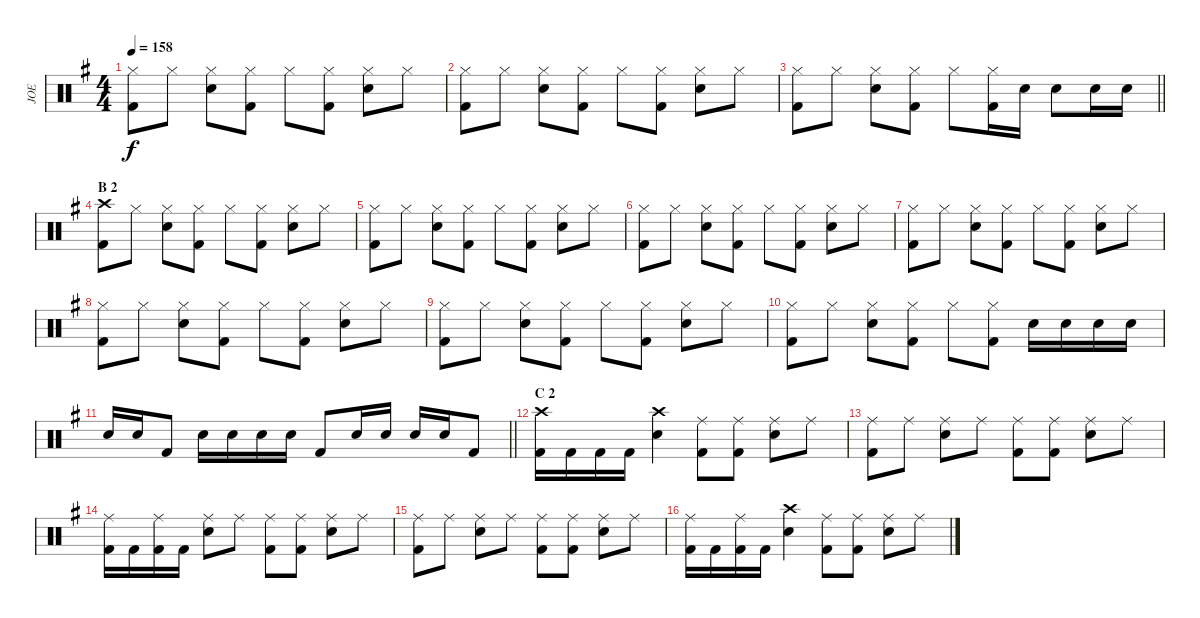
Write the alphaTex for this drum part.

\track ("JOE" "JOE") {instrument percussion}
\staff {score}
\articulation defaults
\ts (4 4)
\tempo 158
\clef neutral
\ks g
("Hi-Hat (closed)" "Kick (hit) 2").8{dy f} "Hi-Hat (closed)".8 ("Hi-Hat (closed)" "Snare (hit) 2").8 ("Hi-Hat (closed)" "Kick (hit) 2").8 "Hi-Hat (closed)".8 ("Hi-Hat (closed)" "Kick (hit) 2").8 ("Hi-Hat (closed)" "Snare (hit) 2").8 "Hi-Hat (closed)".8 |
("Hi-Hat (closed)" "Kick (hit) 2").8 "Hi-Hat (closed)".8 ("Hi-Hat (closed)" "Snare (hit) 2").8 ("Hi-Hat (closed)" "Kick (hit) 2").8 "Hi-Hat (closed)".8 ("Hi-Hat (closed)" "Kick (hit) 2").8 ("Hi-Hat (closed)" "Snare (hit) 2").8 "Hi-Hat (closed)".8 |
\barLineRight lightlight
("Hi-Hat (closed)" "Kick (hit) 2").8 "Hi-Hat (closed)".8 ("Hi-Hat (closed)" "Snare (hit) 2").8 ("Hi-Hat (closed)" "Kick (hit) 2").8 "Hi-Hat (closed)".8 ("Hi-Hat (closed)" "Kick (hit) 2").16 "Snare (hit) 2".16 "Snare (hit) 2".8 "Snare (hit) 2".16 "Snare (hit) 2".16 |
\section ("" "B 2")
("Crash high (hit)" "Kick (hit) 2").8 "Hi-Hat (closed)".8 ("Hi-Hat (closed)" "Snare (hit) 2").8 ("Hi-Hat (closed)" "Kick (hit) 2").8 "Hi-Hat (closed)".8 ("Hi-Hat (closed)" "Kick (hit) 2").8 ("Hi-Hat (closed)" "Snare (hit) 2").8 "Hi-Hat (closed)".8 |
("Hi-Hat (closed)" "Kick (hit) 2").8 "Hi-Hat (closed)".8 ("Hi-Hat (closed)" "Snare (hit) 2").8 ("Hi-Hat (closed)" "Kick (hit) 2").8 "Hi-Hat (closed)".8 ("Hi-Hat (closed)" "Kick (hit) 2").8 ("Hi-Hat (closed)" "Snare (hit) 2").8 "Hi-Hat (closed)".8 |
("Hi-Hat (closed)" "Kick (hit) 2").8 "Hi-Hat (closed)".8 ("Hi-Hat (closed)" "Snare (hit) 2").8 ("Hi-Hat (closed)" "Kick (hit) 2").8 "Hi-Hat (closed)".8 ("Hi-Hat (closed)" "Kick (hit) 2").8 ("Hi-Hat (closed)" "Snare (hit) 2").8 "Hi-Hat (closed)".8 |
("Hi-Hat (closed)" "Kick (hit) 2").8 "Hi-Hat (closed)".8 ("Hi-Hat (closed)" "Snare (hit) 2").8 ("Hi-Hat (closed)" "Kick (hit) 2").8 "Hi-Hat (closed)".8 ("Hi-Hat (closed)" "Kick (hit) 2").8 ("Hi-Hat (closed)" "Snare (hit) 2").8 "Hi-Hat (closed)".8 |
("Hi-Hat (closed)" "Kick (hit) 2").8 "Hi-Hat (closed)".8 ("Hi-Hat (closed)" "Snare (hit) 2").8 ("Hi-Hat (closed)" "Kick (hit) 2").8 "Hi-Hat (closed)".8 ("Hi-Hat (closed)" "Kick (hit) 2").8 ("Hi-Hat (closed)" "Snare (hit) 2").8 "Hi-Hat (closed)".8 |
("Hi-Hat (closed)" "Kick (hit) 2").8 "Hi-Hat (closed)".8 ("Hi-Hat (closed)" "Snare (hit) 2").8 ("Hi-Hat (closed)" "Kick (hit) 2").8 "Hi-Hat (closed)".8 ("Hi-Hat (closed)" "Kick (hit) 2").8 ("Hi-Hat (closed)" "Snare (hit) 2").8 "Hi-Hat (closed)".8 |
("Hi-Hat (closed)" "Kick (hit) 2").8 "Hi-Hat (closed)".8 ("Hi-Hat (closed)" "Snare (hit) 2").8 ("Hi-Hat (closed)" "Kick (hit) 2").8 "Hi-Hat (closed)".8 ("Hi-Hat (closed)" "Kick (hit) 2").8 "Snare (hit) 2".16 "Snare (hit) 2".16 "Snare (hit) 2".16 "Snare (hit) 2".16 |
\barLineRight lightlight "Snare (hit) 2".16 "Snare (hit) 2".16 "Kick (hit) 2".8 "Snare (hit) 2".16 "Snare (hit) 2".16 "Snare (hit) 2".16 "Snare (hit) 2".16 "Kick (hit) 2".8 "Snare (hit) 2".16 "Snare (hit) 2".16 "Snare (hit) 2".16 "Snare (hit) 2".16 "Kick (hit) 2".8
|
\section ("" "C 2")
("Crash high (hit)" "Kick (hit) 2").16 "Kick (hit) 2".16 "Kick (hit) 2".16 "Kick (hit) 2".16 ("Crash high (hit)" "Snare (hit) 2").4 ("Ride (middle)" "Kick (hit) 2").8 ("Ride (middle)" "Kick (hit) 2").8 ("Ride (middle)" "Snare (hit) 2").8 "Ride (middle)".8 |
("Ride (middle)" "Kick (hit) 2").8 "Ride (middle)".8 ("Ride (middle)" "Snare (hit) 2").8 "Ride (middle)".8 ("Ride (middle)" "Kick (hit) 2").8 ("Ride (middle)" "Kick (hit) 2").8 ("Ride (middle)" "Snare (hit) 2").8 "Ride (middle)".8 |
("Ride (middle)" "Kick (hit) 2").16 "Kick (hit) 2".16 ("Ride (middle)" "Kick (hit) 2").16 "Kick (hit) 2".16 ("Ride (middle)" "Snare (hit) 2").8 "Ride (middle)".8 ("Ride (middle)" "Kick (hit) 2").8 ("Ride (middle)" "Kick (hit) 2").8 ("Ride (middle)" "Snare (hit) 2").8 "Ride (middle)".8 |
("Ride (middle)" "Kick (hit) 2").8 "Ride (middle)".8 ("Ride (middle)" "Snare (hit) 2").8 "Ride (middle)".8 ("Ride (middle)" "Kick (hit) 2").8 ("Ride (middle)" "Kick (hit) 2").8 ("Ride (middle)" "Snare (hit) 2").8 "Ride (middle)".8 |
("Ride (middle)" "Kick (hit) 2").16 "Kick (hit) 2".16 ("Ride (middle)" "Kick (hit) 2").16 "Kick (hit) 2".16 ("Crash high (hit)" "Snare (hit) 2").4 ("Ride (middle)" "Kick (hit) 2").8 ("Ride (middle)" "Kick (hit) 2").8 ("Ride (middle)" "Snare (hit) 2").8 "Ride (middle)".8
